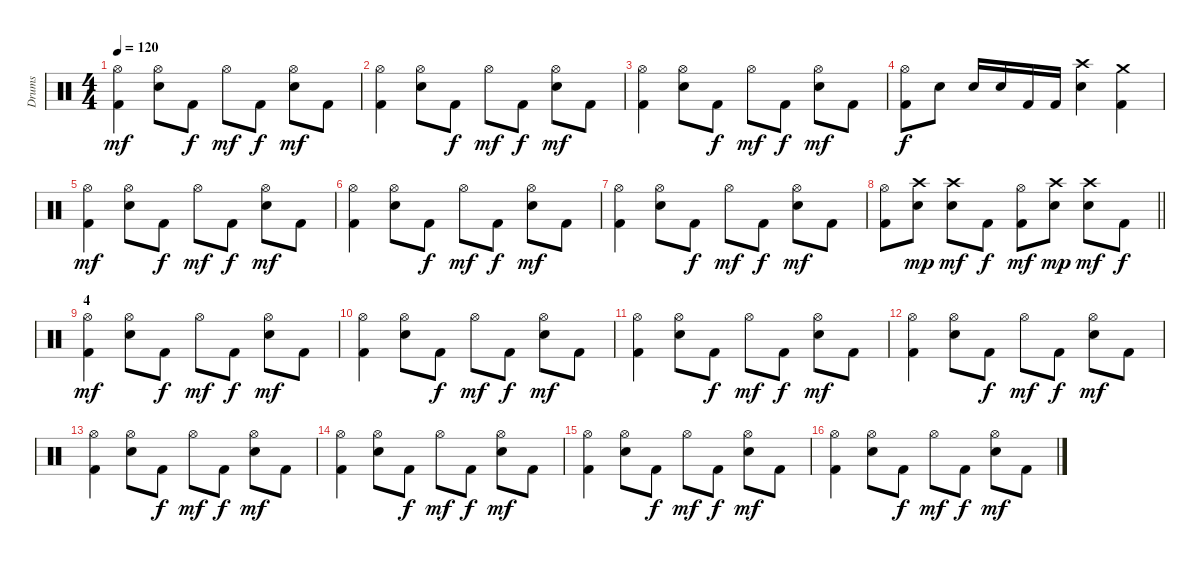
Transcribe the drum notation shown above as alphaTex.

\track ("Drums" "Drums") {instrument percussion}
\staff {score}
\articulation defaults
\ts (4 4)
\tempo 120
\clef neutral
\ks c
("Kick (hit) 2" "Hi-Hat (open)").4{dy mf} ("Hi-Hat (open)" "Electric Snare (hit)").8 "Kick (hit) 2".8{dy f} "Hi-Hat (open)".8{dy mf} "Kick (hit) 2".8{dy f} ("Electric Snare (hit)" "Hi-Hat (open)").8{dy mf} "Kick (hit) 2".8 |
("Kick (hit) 2" "Hi-Hat (open)").4 ("Hi-Hat (open)" "Electric Snare (hit)").8 "Kick (hit) 2".8{dy f} "Hi-Hat (open)".8{dy mf} "Kick (hit) 2".8{dy f} ("Electric Snare (hit)" "Hi-Hat (open)").8{dy mf} "Kick (hit) 2".8 |
("Kick (hit) 2" "Hi-Hat (open)").4 ("Hi-Hat (open)" "Electric Snare (hit)").8 "Kick (hit) 2".8{dy f} "Hi-Hat (open)".8{dy mf} "Kick (hit) 2".8{dy f} ("Electric Snare (hit)" "Hi-Hat (open)").8{dy mf} "Kick (hit) 2".8 |
("Kick (hit) 2" "Hi-Hat (open)").8{dy f} "Electric Snare (hit)".8 "Electric Snare (hit)".16 "Electric Snare (hit)".16 "Kick (hit) 2".16 "Kick (hit) 2".16 ("Crash high (hit)" "Electric Snare (hit)").4 ("Kick (hit) 2" "Crash medium (hit)").4 |
("Kick (hit) 2" "Hi-Hat (open)").4{dy mf} ("Hi-Hat (open)" "Electric Snare (hit)").8 "Kick (hit) 2".8{dy f} "Hi-Hat (open)".8{dy mf} "Kick (hit) 2".8{dy f} ("Electric Snare (hit)" "Hi-Hat (open)").8{dy mf} "Kick (hit) 2".8 |
("Kick (hit) 2" "Hi-Hat (open)").4 ("Hi-Hat (open)" "Electric Snare (hit)").8 "Kick (hit) 2".8{dy f} "Hi-Hat (open)".8{dy mf} "Kick (hit) 2".8{dy f} ("Electric Snare (hit)" "Hi-Hat (open)").8{dy mf} "Kick (hit) 2".8 |
("Kick (hit) 2" "Hi-Hat (open)").4 ("Hi-Hat (open)" "Electric Snare (hit)").8 "Kick (hit) 2".8{dy f} "Hi-Hat (open)".8{dy mf} "Kick (hit) 2".8{dy f} ("Electric Snare (hit)" "Hi-Hat (open)").8{dy mf} "Kick (hit) 2".8 |
\barLineRight lightlight
("Kick (hit) 2" "Hi-Hat (open)").8 ("Electric Snare (hit)" "Crash high (hit)").8{dy mp} ("Electric Snare (hit)" "Crash high (hit)").8{dy mf} "Kick (hit) 2".8{dy f} ("Kick (hit) 2" "Hi-Hat (open)").8{dy mf} ("Electric Snare (hit)" "Crash high (hit)").8{dy mp} ("Electric Snare (hit)" "Crash high (hit)").8{dy mf} "Kick (hit) 2".8{dy f} |
\section ("" "4")
("Kick (hit) 2" "Hi-Hat (open)").4{dy mf} ("Hi-Hat (open)" "Electric Snare (hit)").8 "Kick (hit) 2".8{dy f} "Hi-Hat (open)".8{dy mf} "Kick (hit) 2".8{dy f} ("Electric Snare (hit)" "Hi-Hat (open)").8{dy mf} "Kick (hit) 2".8 |
("Kick (hit) 2" "Hi-Hat (open)").4 ("Hi-Hat (open)" "Electric Snare (hit)").8 "Kick (hit) 2".8{dy f} "Hi-Hat (open)".8{dy mf} "Kick (hit) 2".8{dy f} ("Electric Snare (hit)" "Hi-Hat (open)").8{dy mf} "Kick (hit) 2".8 |
("Kick (hit) 2" "Hi-Hat (open)").4 ("Hi-Hat (open)" "Electric Snare (hit)").8 "Kick (hit) 2".8{dy f} "Hi-Hat (open)".8{dy mf} "Kick (hit) 2".8{dy f} ("Electric Snare (hit)" "Hi-Hat (open)").8{dy mf} "Kick (hit) 2".8 |
("Kick (hit) 2" "Hi-Hat (open)").4 ("Hi-Hat (open)" "Electric Snare (hit)").8 "Kick (hit) 2".8{dy f} "Hi-Hat (open)".8{dy mf} "Kick (hit) 2".8{dy f} ("Electric Snare (hit)" "Hi-Hat (open)").8{dy mf} "Kick (hit) 2".8 |
("Kick (hit) 2" "Hi-Hat (open)").4 ("Hi-Hat (open)" "Electric Snare (hit)").8 "Kick (hit) 2".8{dy f} "Hi-Hat (open)".8{dy mf} "Kick (hit) 2".8{dy f} ("Electric Snare (hit)" "Hi-Hat (open)").8{dy mf} "Kick (hit) 2".8 |
("Kick (hit) 2" "Hi-Hat (open)").4 ("Hi-Hat (open)" "Electric Snare (hit)").8 "Kick (hit) 2".8{dy f} "Hi-Hat (open)".8{dy mf} "Kick (hit) 2".8{dy f} ("Electric Snare (hit)" "Hi-Hat (open)").8{dy mf} "Kick (hit) 2".8 |
("Kick (hit) 2" "Hi-Hat (open)").4 ("Hi-Hat (open)" "Electric Snare (hit)").8 "Kick (hit) 2".8{dy f} "Hi-Hat (open)".8{dy mf} "Kick (hit) 2".8{dy f} ("Electric Snare (hit)" "Hi-Hat (open)").8{dy mf} "Kick (hit) 2".8 |
("Kick (hit) 2" "Hi-Hat (open)").4 ("Hi-Hat (open)" "Electric Snare (hit)").8 "Kick (hit) 2".8{dy f} "Hi-Hat (open)".8{dy mf} "Kick (hit) 2".8{dy f} ("Electric Snare (hit)" "Hi-Hat (open)").8{dy mf} "Kick (hit) 2".8
